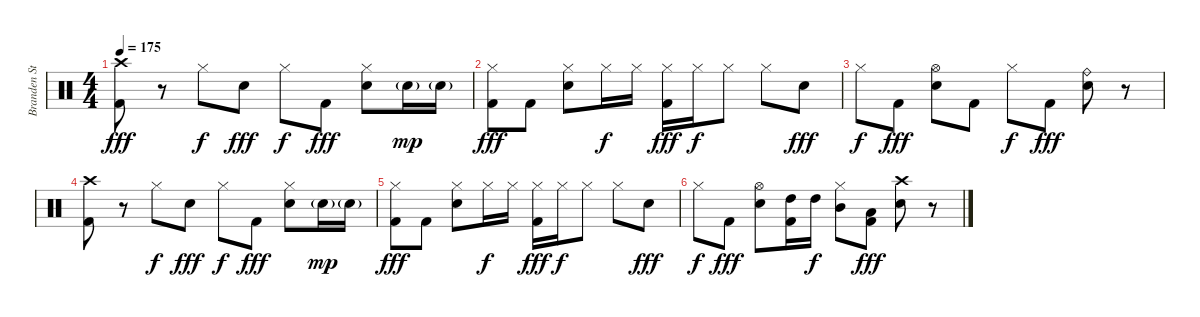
\track ("Branden Steineckert (Drums)" "Branden St") {instrument percussion}
\staff {score}
\articulation defaults
\ts (4 4)
\tempo 175
\clef neutral
\ks c
("Kick (hit) 2" "Crash high (hit)").8{dy fff} r.8 "Hi-Hat (closed)".8{dy f} "Electric Snare (hit)".8{dy fff} "Hi-Hat (closed)".8{dy f} "Kick (hit) 2".8{dy fff} ("Electric Snare (hit)" "Hi-Hat (closed)").8 "Electric Snare (hit)"{g}.16{dy mp} "Electric Snare (hit)"{g}.16 |
("Kick (hit) 2" "Hi-Hat (closed)").8{dy fff} "Kick (hit) 2".8 ("Electric Snare (hit)" "Hi-Hat (closed)").8 "Hi-Hat (closed)".16{dy f} "Hi-Hat (closed)".16 ("Kick (hit) 2" "Hi-Hat (closed)").16{dy fff} "Hi-Hat (closed)".16{dy f} "Hi-Hat (closed)".8 "Hi-Hat (closed)".8 "Electric Snare (hit)".8{dy fff} |
"Hi-Hat (closed)".8{dy f} "Kick (hit) 2".8{dy fff} ("Electric Snare (hit)" "Hi-Hat (open)").8 "Kick (hit) 2".8 "Hi-Hat (closed)".8{dy f} "Kick (hit) 2".8{dy fff} ("Electric Snare (hit)" "Ride (bell)").8 r.8 |
("Kick (hit) 2" "Crash high (hit)").8 r.8 "Hi-Hat (closed)".8{dy f} "Electric Snare (hit)".8{dy fff} "Hi-Hat (closed)".8{dy f} "Kick (hit) 2".8{dy fff} ("Electric Snare (hit)" "Hi-Hat (closed)").8 "Electric Snare (hit)"{g}.16{dy mp} "Electric Snare (hit)"{g}.16 |
("Kick (hit) 2" "Hi-Hat (closed)").8{dy fff} "Kick (hit) 2".8 ("Electric Snare (hit)" "Hi-Hat (closed)").8 "Hi-Hat (closed)".16{dy f} "Hi-Hat (closed)".16 ("Kick (hit) 2" "Hi-Hat (closed)").16{dy fff} "Hi-Hat (closed)".16{dy f} "Hi-Hat (closed)".8 "Hi-Hat (closed)".8 "Electric Snare (hit)".8{dy fff} |
"Hi-Hat (closed)".8{dy f} "Kick (hit) 2".8{dy fff} ("Electric Snare (hit)" "Hi-Hat (open)").8 ("Kick (hit) 2" "High Tom (hit)").16 "High Tom (hit)".16{dy f} ("Mid Tom (hit)" "Hi-Hat (closed)").8 ("Kick (hit) 2" "Low Tom (hit)").8{dy fff} ("Electric Snare (hit)" "Crash high (hit)").8 r.8
